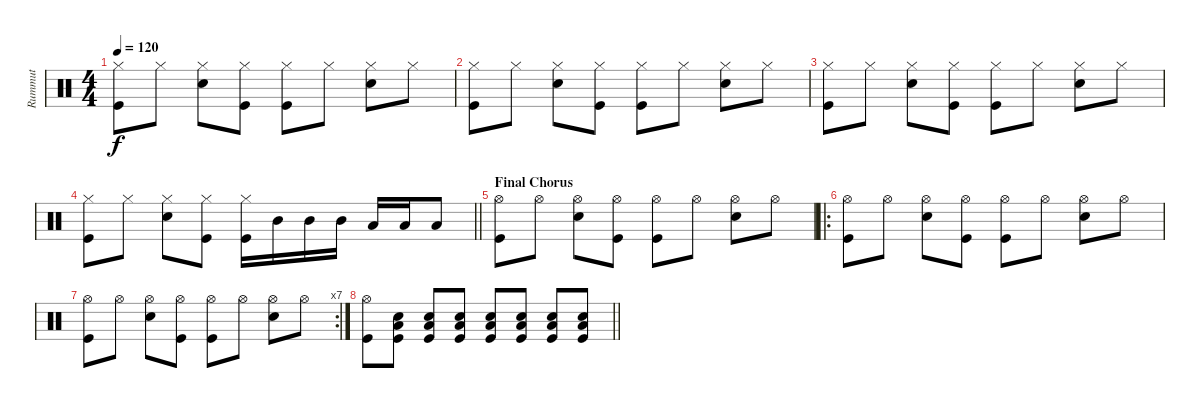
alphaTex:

\track ("Rummut" "Rummut") {instrument percussion}
\staff {score}
\articulation defaults
\ts (4 4)
\tempo 120
\clef neutral
\ks c
("Hi-Hat (closed)" "Kick (hit)").8{dy f} "Hi-Hat (closed)".8 ("Hi-Hat (closed)" "Snare (hit) 2").8 ("Hi-Hat (closed)" "Kick (hit)").8 ("Hi-Hat (closed)" "Kick (hit)").8 "Hi-Hat (closed)".8 ("Hi-Hat (closed)" "Snare (hit) 2").8 "Hi-Hat (closed)".8 |
("Hi-Hat (closed)" "Kick (hit)").8 "Hi-Hat (closed)".8 ("Hi-Hat (closed)" "Snare (hit) 2").8 ("Hi-Hat (closed)" "Kick (hit)").8 ("Hi-Hat (closed)" "Kick (hit)").8 "Hi-Hat (closed)".8 ("Hi-Hat (closed)" "Snare (hit) 2").8 "Hi-Hat (closed)".8 |
("Hi-Hat (closed)" "Kick (hit)").8 "Hi-Hat (closed)".8 ("Hi-Hat (closed)" "Snare (hit) 2").8 ("Hi-Hat (closed)" "Kick (hit)").8 ("Hi-Hat (closed)" "Kick (hit)").8 "Hi-Hat (closed)".8 ("Hi-Hat (closed)" "Snare (hit) 2").8 "Hi-Hat (closed)".8 |
\barLineRight lightlight
("Hi-Hat (closed)" "Kick (hit)").8 "Hi-Hat (closed)".8 ("Hi-Hat (closed)" "Snare (hit) 2").8 ("Hi-Hat (closed)" "Kick (hit)").8 ("Hi-Hat (closed)" "Kick (hit)").16 "Mid Tom (hit)".16 "Mid Tom (hit)".16 "Mid Tom (hit)".16 "Low Tom (hit)".16 "Low Tom (hit)".16 "Low Tom (hit)".8 |
\section ("" "Final Chorus")
("Hi-Hat (open)" "Kick (hit)").8 "Hi-Hat (open)".8 ("Hi-Hat (open)" "Snare (hit) 2").8 ("Hi-Hat (open)" "Kick (hit)").8 ("Hi-Hat (open)" "Kick (hit)").8 "Hi-Hat (open)".8 ("Hi-Hat (open)" "Snare (hit) 2").8 "Hi-Hat (open)".8 |
\ro
("Hi-Hat (open)" "Kick (hit)").8 "Hi-Hat (open)".8 ("Hi-Hat (open)" "Snare (hit) 2").8 ("Hi-Hat (open)" "Kick (hit)").8 ("Hi-Hat (open)" "Kick (hit)").8 "Hi-Hat (open)".8 ("Hi-Hat (open)" "Snare (hit) 2").8 "Hi-Hat (open)".8 |
\rc 7
("Hi-Hat (open)" "Kick (hit)").8 "Hi-Hat (open)".8 ("Hi-Hat (open)" "Snare (hit) 2").8 ("Hi-Hat (open)" "Kick (hit)").8 ("Hi-Hat (open)" "Kick (hit)").8 "Hi-Hat (open)".8 ("Hi-Hat (open)" "Snare (hit) 2").8 "Hi-Hat (open)".8 |
\barLineRight lightlight
("Hi-Hat (open)" "Kick (hit)").8 ("Snare (hit) 2" "Kick (hit)" "Low Floor Tom (hit)").8 ("Snare (hit) 2" "Kick (hit)" "Low Floor Tom (hit)").8 ("Snare (hit) 2" "Kick (hit)" "Low Floor Tom (hit)").8 ("Snare (hit) 2" "Kick (hit)" "Low Floor Tom (hit)").8 ("Snare (hit) 2" "Kick (hit)" "Low Floor Tom (hit)").8 ("Snare (hit) 2" "Kick (hit)" "Low Floor Tom (hit)").8 ("Snare (hit) 2" "Kick (hit)" "Low Floor Tom (hit)").8
